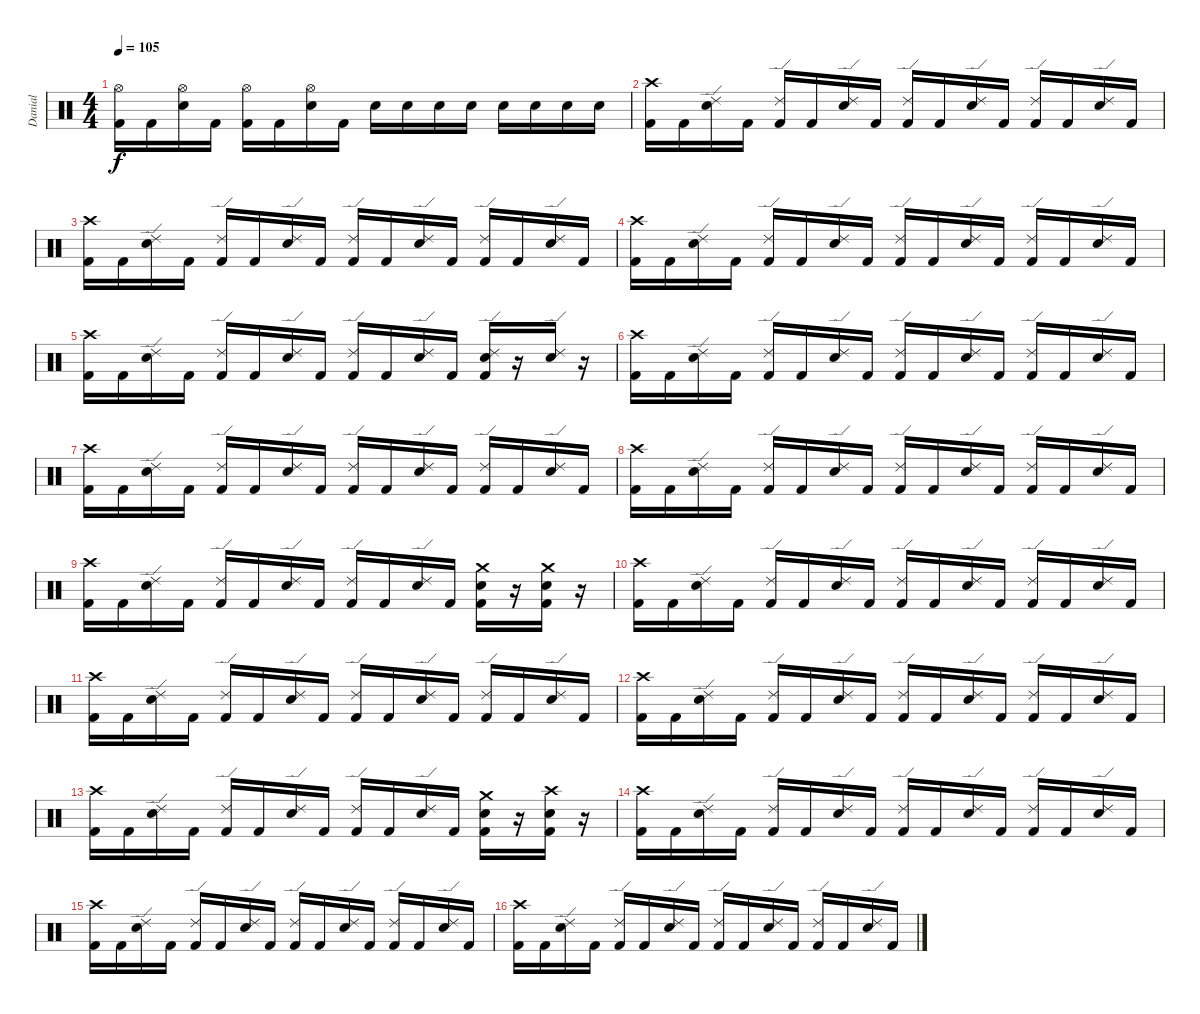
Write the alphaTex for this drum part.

\track ("Danial" "Danial") {instrument percussion}
\staff {score}
\articulation defaults
\ts (4 4)
\tempo 105
\clef neutral
\ks c
("Hi-Hat (open)" "Kick (hit) 2").16{dy f} "Kick (hit) 2".16 ("Hi-Hat (open)" "Snare (hit) 2").16 "Kick (hit) 2".16 ("Hi-Hat (open)" "Kick (hit) 2").16 "Kick (hit) 2".16 ("Hi-Hat (open)" "Snare (hit) 2").16 "Kick (hit) 2".16 "Snare (hit) 2".16 "Snare (hit) 2".16 "Snare (hit) 2".16 "Snare (hit) 2".16 "Snare (hit) 2".16 "Snare (hit) 2".16 "Snare (hit) 2".16 "Snare (hit) 2".16 |
("Crash high (hit)" "Kick (hit) 2").16 "Kick (hit) 2".16 ("Ride (edge) 2" "Snare (hit) 2").16 "Kick (hit) 2".16 ("Ride (edge) 2" "Kick (hit) 2").16 "Kick (hit) 2".16 ("Ride (edge) 2" "Snare (hit) 2").16 "Kick (hit) 2".16 ("Ride (edge) 2" "Kick (hit) 2").16 "Kick (hit) 2".16 ("Ride (edge) 2" "Snare (hit) 2").16 "Kick (hit) 2".16 ("Ride (edge) 2" "Kick (hit) 2").16 "Kick (hit) 2".16 ("Ride (edge) 2" "Snare (hit) 2").16 "Kick (hit) 2".16 |
("Crash high (hit)" "Kick (hit) 2").16 "Kick (hit) 2".16 ("Ride (edge) 2" "Snare (hit) 2").16 "Kick (hit) 2".16 ("Ride (edge) 2" "Kick (hit) 2").16 "Kick (hit) 2".16 ("Ride (edge) 2" "Snare (hit) 2").16 "Kick (hit) 2".16 ("Ride (edge) 2" "Kick (hit) 2").16 "Kick (hit) 2".16 ("Ride (edge) 2" "Snare (hit) 2").16 "Kick (hit) 2".16 ("Ride (edge) 2" "Kick (hit) 2").16 "Kick (hit) 2".16 ("Ride (edge) 2" "Snare (hit) 2").16 "Kick (hit) 2".16 |
("Crash high (hit)" "Kick (hit) 2").16 "Kick (hit) 2".16 ("Ride (edge) 2" "Snare (hit) 2").16 "Kick (hit) 2".16 ("Ride (edge) 2" "Kick (hit) 2").16 "Kick (hit) 2".16 ("Ride (edge) 2" "Snare (hit) 2").16 "Kick (hit) 2".16 ("Ride (edge) 2" "Kick (hit) 2").16 "Kick (hit) 2".16 ("Ride (edge) 2" "Snare (hit) 2").16 "Kick (hit) 2".16 ("Ride (edge) 2" "Kick (hit) 2").16 "Kick (hit) 2".16 ("Ride (edge) 2" "Snare (hit) 2").16 "Kick (hit) 2".16 |
("Crash high (hit)" "Kick (hit) 2").16 "Kick (hit) 2".16 ("Ride (edge) 2" "Snare (hit) 2").16 "Kick (hit) 2".16 ("Ride (edge) 2" "Kick (hit) 2").16 "Kick (hit) 2".16 ("Ride (edge) 2" "Snare (hit) 2").16 "Kick (hit) 2".16 ("Ride (edge) 2" "Kick (hit) 2").16 "Kick (hit) 2".16 ("Ride (edge) 2" "Snare (hit) 2").16 "Kick (hit) 2".16 ("Ride (edge) 2" "Snare (hit) 2" "Kick (hit) 2").16 r.16 ("Ride (edge) 2" "Snare (hit) 2").16 r.16 |
("Crash high (hit)" "Kick (hit) 2").16 "Kick (hit) 2".16 ("Ride (edge) 2" "Snare (hit) 2").16 "Kick (hit) 2".16 ("Ride (edge) 2" "Kick (hit) 2").16 "Kick (hit) 2".16 ("Ride (edge) 2" "Snare (hit) 2").16 "Kick (hit) 2".16 ("Ride (edge) 2" "Kick (hit) 2").16 "Kick (hit) 2".16 ("Ride (edge) 2" "Snare (hit) 2").16 "Kick (hit) 2".16 ("Ride (edge) 2" "Kick (hit) 2").16 "Kick (hit) 2".16 ("Ride (edge) 2" "Snare (hit) 2").16 "Kick (hit) 2".16 |
("Crash high (hit)" "Kick (hit) 2").16 "Kick (hit) 2".16 ("Ride (edge) 2" "Snare (hit) 2").16 "Kick (hit) 2".16 ("Ride (edge) 2" "Kick (hit) 2").16 "Kick (hit) 2".16 ("Ride (edge) 2" "Snare (hit) 2").16 "Kick (hit) 2".16 ("Ride (edge) 2" "Kick (hit) 2").16 "Kick (hit) 2".16 ("Ride (edge) 2" "Snare (hit) 2").16 "Kick (hit) 2".16 ("Ride (edge) 2" "Kick (hit) 2").16 "Kick (hit) 2".16 ("Ride (edge) 2" "Snare (hit) 2").16 "Kick (hit) 2".16 |
("Crash high (hit)" "Kick (hit) 2").16 "Kick (hit) 2".16 ("Ride (edge) 2" "Snare (hit) 2").16 "Kick (hit) 2".16 ("Ride (edge) 2" "Kick (hit) 2").16 "Kick (hit) 2".16 ("Ride (edge) 2" "Snare (hit) 2").16 "Kick (hit) 2".16 ("Ride (edge) 2" "Kick (hit) 2").16 "Kick (hit) 2".16 ("Ride (edge) 2" "Snare (hit) 2").16 "Kick (hit) 2".16 ("Ride (edge) 2" "Kick (hit) 2").16 "Kick (hit) 2".16 ("Ride (edge) 2" "Snare (hit) 2").16 "Kick (hit) 2".16 |
("Crash high (hit)" "Kick (hit) 2").16 "Kick (hit) 2".16 ("Ride (edge) 2" "Snare (hit) 2").16 "Kick (hit) 2".16 ("Ride (edge) 2" "Kick (hit) 2").16 "Kick (hit) 2".16 ("Ride (edge) 2" "Snare (hit) 2").16 "Kick (hit) 2".16 ("Ride (edge) 2" "Kick (hit) 2").16 "Kick (hit) 2".16 ("Ride (edge) 2" "Snare (hit) 2").16 "Kick (hit) 2".16 ("Crash medium (hit)" "Snare (hit) 2" "Kick (hit) 2").16 r.16 ("Crash medium (hit)" "Snare (hit) 2" "Kick (hit) 2").16 r.16 |
("Crash high (hit)" "Kick (hit) 2").16 "Kick (hit) 2".16 ("Ride (edge) 2" "Snare (hit) 2").16 "Kick (hit) 2".16 ("Ride (edge) 2" "Kick (hit) 2").16 "Kick (hit) 2".16 ("Ride (edge) 2" "Snare (hit) 2").16 "Kick (hit) 2".16 ("Ride (edge) 2" "Kick (hit) 2").16 "Kick (hit) 2".16 ("Ride (edge) 2" "Snare (hit) 2").16 "Kick (hit) 2".16 ("Ride (edge) 2" "Kick (hit) 2").16 "Kick (hit) 2".16 ("Ride (edge) 2" "Snare (hit) 2").16 "Kick (hit) 2".16 |
("Crash high (hit)" "Kick (hit) 2").16 "Kick (hit) 2".16 ("Ride (edge) 2" "Snare (hit) 2").16 "Kick (hit) 2".16 ("Ride (edge) 2" "Kick (hit) 2").16 "Kick (hit) 2".16 ("Ride (edge) 2" "Snare (hit) 2").16 "Kick (hit) 2".16 ("Ride (edge) 2" "Kick (hit) 2").16 "Kick (hit) 2".16 ("Ride (edge) 2" "Snare (hit) 2").16 "Kick (hit) 2".16 ("Ride (edge) 2" "Kick (hit) 2").16 "Kick (hit) 2".16 ("Ride (edge) 2" "Snare (hit) 2").16 "Kick (hit) 2".16 |
("Crash high (hit)" "Kick (hit) 2").16 "Kick (hit) 2".16 ("Ride (edge) 2" "Snare (hit) 2").16 "Kick (hit) 2".16 ("Ride (edge) 2" "Kick (hit) 2").16 "Kick (hit) 2".16 ("Ride (edge) 2" "Snare (hit) 2").16 "Kick (hit) 2".16 ("Ride (edge) 2" "Kick (hit) 2").16 "Kick (hit) 2".16 ("Ride (edge) 2" "Snare (hit) 2").16 "Kick (hit) 2".16 ("Ride (edge) 2" "Kick (hit) 2").16 "Kick (hit) 2".16 ("Ride (edge) 2" "Snare (hit) 2").16 "Kick (hit) 2".16 |
("Crash high (hit)" "Kick (hit) 2").16 "Kick (hit) 2".16 ("Ride (edge) 2" "Snare (hit) 2").16 "Kick (hit) 2".16 ("Ride (edge) 2" "Kick (hit) 2").16 "Kick (hit) 2".16 ("Ride (edge) 2" "Snare (hit) 2").16 "Kick (hit) 2".16 ("Ride (edge) 2" "Kick (hit) 2").16 "Kick (hit) 2".16 ("Ride (edge) 2" "Snare (hit) 2").16 "Kick (hit) 2".16 ("Crash medium (hit)" "Snare (hit) 2" "Kick (hit) 2").16 r.16 ("Crash high (hit)" "Snare (hit) 2" "Kick (hit) 2").16 r.16 |
("Crash high (hit)" "Kick (hit) 2").16 "Kick (hit) 2".16 ("Ride (edge) 2" "Snare (hit) 2").16 "Kick (hit) 2".16 ("Ride (edge) 2" "Kick (hit) 2").16 "Kick (hit) 2".16 ("Ride (edge) 2" "Snare (hit) 2").16 "Kick (hit) 2".16 ("Ride (edge) 2" "Kick (hit) 2").16 "Kick (hit) 2".16 ("Ride (edge) 2" "Snare (hit) 2").16 "Kick (hit) 2".16 ("Ride (edge) 2" "Kick (hit) 2").16 "Kick (hit) 2".16 ("Ride (edge) 2" "Snare (hit) 2").16 "Kick (hit) 2".16 |
("Crash high (hit)" "Kick (hit) 2").16 "Kick (hit) 2".16 ("Ride (edge) 2" "Snare (hit) 2").16 "Kick (hit) 2".16 ("Ride (edge) 2" "Kick (hit) 2").16 "Kick (hit) 2".16 ("Ride (edge) 2" "Snare (hit) 2").16 "Kick (hit) 2".16 ("Ride (edge) 2" "Kick (hit) 2").16 "Kick (hit) 2".16 ("Ride (edge) 2" "Snare (hit) 2").16 "Kick (hit) 2".16 ("Ride (edge) 2" "Kick (hit) 2").16 "Kick (hit) 2".16 ("Ride (edge) 2" "Snare (hit) 2").16 "Kick (hit) 2".16 |
("Crash high (hit)" "Kick (hit) 2").16 "Kick (hit) 2".16 ("Ride (edge) 2" "Snare (hit) 2").16 "Kick (hit) 2".16 ("Ride (edge) 2" "Kick (hit) 2").16 "Kick (hit) 2".16 ("Ride (edge) 2" "Snare (hit) 2").16 "Kick (hit) 2".16 ("Ride (edge) 2" "Kick (hit) 2").16 "Kick (hit) 2".16 ("Ride (edge) 2" "Snare (hit) 2").16 "Kick (hit) 2".16 ("Ride (edge) 2" "Kick (hit) 2").16 "Kick (hit) 2".16 ("Ride (edge) 2" "Snare (hit) 2").16 "Kick (hit) 2".16
